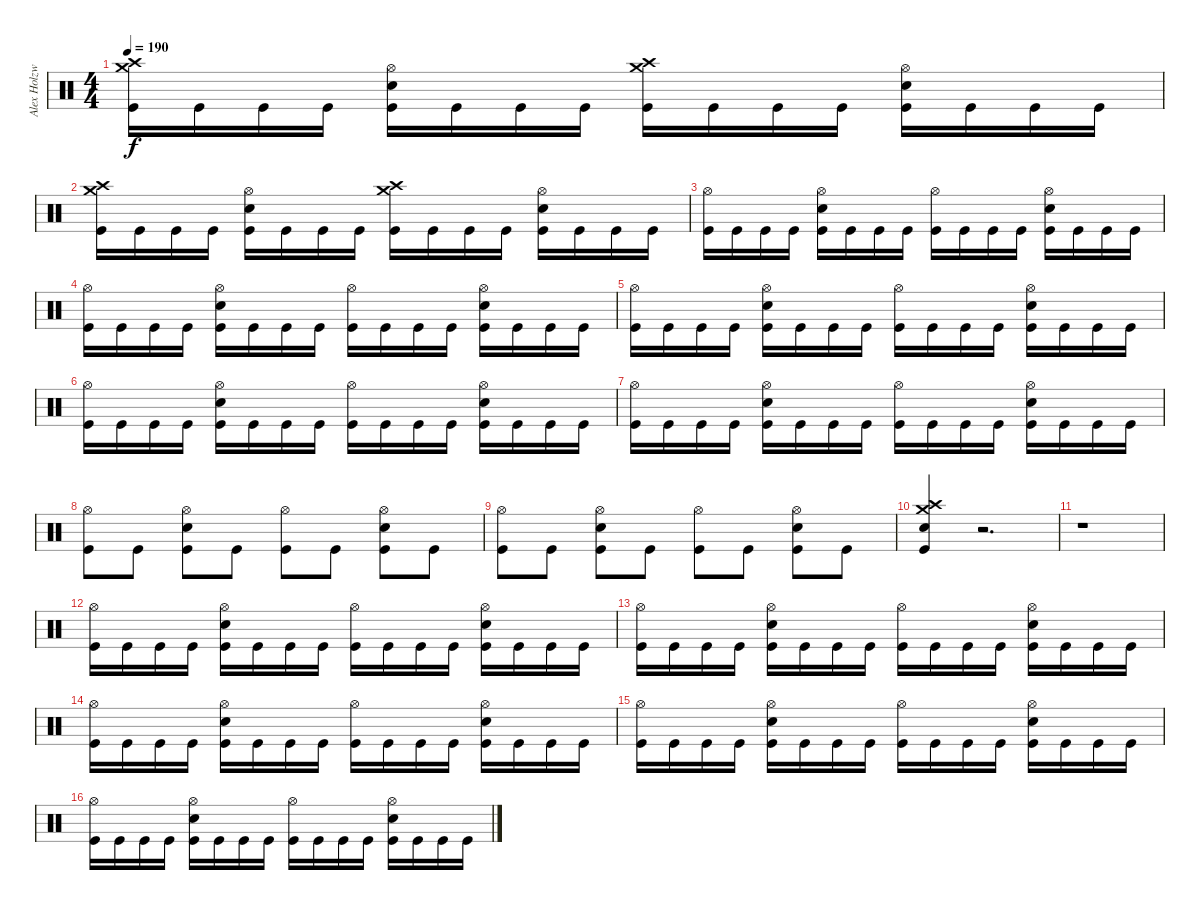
\track ("Alex Holzwarth" "Alex Holzw") {instrument percussion}
\staff {score}
\articulation defaults
\ts (4 4)
\tempo 190
\clef neutral
\ks c
("Kick (hit)" "Crash high (hit)" "Crash medium (hit)").16{dy f} "Kick (hit)".16 "Kick (hit)".16 "Kick (hit)".16 ("Kick (hit)" "Electric Snare (hit)" "Hi-Hat (open)").16 "Kick (hit)".16 "Kick (hit)".16 "Kick (hit)".16 ("Kick (hit)" "Crash medium (hit)" "Crash high (hit)").16 "Kick (hit)".16 "Kick (hit)".16 "Kick (hit)".16 ("Kick (hit)" "Electric Snare (hit)" "Hi-Hat (open)").16 "Kick (hit)".16 "Kick (hit)".16 "Kick (hit)".16 |
("Kick (hit)" "Crash high (hit)" "Crash medium (hit)").16 "Kick (hit)".16 "Kick (hit)".16 "Kick (hit)".16 ("Kick (hit)" "Electric Snare (hit)" "Hi-Hat (open)").16 "Kick (hit)".16 "Kick (hit)".16 "Kick (hit)".16 ("Kick (hit)" "Crash high (hit)" "Crash medium (hit)").16 "Kick (hit)".16 "Kick (hit)".16 "Kick (hit)".16 ("Kick (hit)" "Electric Snare (hit)" "Hi-Hat (open)").16 "Kick (hit)".16 "Kick (hit)".16 "Kick (hit)".16 |
("Kick (hit)" "Hi-Hat (open)").16 "Kick (hit)".16 "Kick (hit)".16 "Kick (hit)".16 ("Kick (hit)" "Electric Snare (hit)" "Hi-Hat (open)").16 "Kick (hit)".16 "Kick (hit)".16 "Kick (hit)".16 ("Kick (hit)" "Hi-Hat (open)").16 "Kick (hit)".16 "Kick (hit)".16 "Kick (hit)".16 ("Kick (hit)" "Electric Snare (hit)" "Hi-Hat (open)").16 "Kick (hit)".16 "Kick (hit)".16 "Kick (hit)".16 |
("Kick (hit)" "Hi-Hat (open)").16 "Kick (hit)".16 "Kick (hit)".16 "Kick (hit)".16 ("Kick (hit)" "Electric Snare (hit)" "Hi-Hat (open)").16 "Kick (hit)".16 "Kick (hit)".16 "Kick (hit)".16 ("Kick (hit)" "Hi-Hat (open)").16 "Kick (hit)".16 "Kick (hit)".16 "Kick (hit)".16 ("Kick (hit)" "Electric Snare (hit)" "Hi-Hat (open)").16 "Kick (hit)".16 "Kick (hit)".16 "Kick (hit)".16 |
("Kick (hit)" "Hi-Hat (open)").16 "Kick (hit)".16 "Kick (hit)".16 "Kick (hit)".16 ("Kick (hit)" "Electric Snare (hit)" "Hi-Hat (open)").16 "Kick (hit)".16 "Kick (hit)".16 "Kick (hit)".16 ("Kick (hit)" "Hi-Hat (open)").16 "Kick (hit)".16 "Kick (hit)".16 "Kick (hit)".16 ("Kick (hit)" "Electric Snare (hit)" "Hi-Hat (open)").16 "Kick (hit)".16 "Kick (hit)".16 "Kick (hit)".16 |
("Kick (hit)" "Hi-Hat (open)").16 "Kick (hit)".16 "Kick (hit)".16 "Kick (hit)".16 ("Kick (hit)" "Electric Snare (hit)" "Hi-Hat (open)").16 "Kick (hit)".16 "Kick (hit)".16 "Kick (hit)".16 ("Kick (hit)" "Hi-Hat (open)").16 "Kick (hit)".16 "Kick (hit)".16 "Kick (hit)".16 ("Kick (hit)" "Electric Snare (hit)" "Hi-Hat (open)").16 "Kick (hit)".16 "Kick (hit)".16 "Kick (hit)".16 |
("Kick (hit)" "Hi-Hat (open)").16 "Kick (hit)".16 "Kick (hit)".16 "Kick (hit)".16 ("Kick (hit)" "Electric Snare (hit)" "Hi-Hat (open)").16 "Kick (hit)".16 "Kick (hit)".16 "Kick (hit)".16 ("Kick (hit)" "Hi-Hat (open)").16 "Kick (hit)".16 "Kick (hit)".16 "Kick (hit)".16 ("Kick (hit)" "Electric Snare (hit)" "Hi-Hat (open)").16 "Kick (hit)".16 "Kick (hit)".16 "Kick (hit)".16 |
("Kick (hit)" "Hi-Hat (open)").8 "Kick (hit)".8 ("Kick (hit)" "Electric Snare (hit)" "Hi-Hat (open)").8 "Kick (hit)".8 ("Kick (hit)" "Hi-Hat (open)").8 "Kick (hit)".8 ("Kick (hit)" "Electric Snare (hit)" "Hi-Hat (open)").8 "Kick (hit)".8 |
("Kick (hit)" "Hi-Hat (open)").8 "Kick (hit)".8 ("Kick (hit)" "Electric Snare (hit)" "Hi-Hat (open)").8 "Kick (hit)".8 ("Kick (hit)" "Hi-Hat (open)").8 "Kick (hit)".8 ("Kick (hit)" "Electric Snare (hit)" "Hi-Hat (open)").8 "Kick (hit)".8 |
("Kick (hit)" "Electric Snare (hit)" "Crash medium (hit)" "Crash high (hit)").4 r.2{d} |
r.1 |
("Kick (hit)" "Hi-Hat (open)").16 "Kick (hit)".16 "Kick (hit)".16 "Kick (hit)".16 ("Kick (hit)" "Electric Snare (hit)" "Hi-Hat (open)").16 "Kick (hit)".16 "Kick (hit)".16 "Kick (hit)".16 ("Kick (hit)" "Hi-Hat (open)").16 "Kick (hit)".16 "Kick (hit)".16 "Kick (hit)".16 ("Kick (hit)" "Electric Snare (hit)" "Hi-Hat (open)").16 "Kick (hit)".16 "Kick (hit)".16 "Kick (hit)".16 |
("Kick (hit)" "Hi-Hat (open)").16 "Kick (hit)".16 "Kick (hit)".16 "Kick (hit)".16 ("Kick (hit)" "Electric Snare (hit)" "Hi-Hat (open)").16 "Kick (hit)".16 "Kick (hit)".16 "Kick (hit)".16 ("Kick (hit)" "Hi-Hat (open)").16 "Kick (hit)".16 "Kick (hit)".16 "Kick (hit)".16 ("Kick (hit)" "Electric Snare (hit)" "Hi-Hat (open)").16 "Kick (hit)".16 "Kick (hit)".16 "Kick (hit)".16 |
("Kick (hit)" "Hi-Hat (open)").16 "Kick (hit)".16 "Kick (hit)".16 "Kick (hit)".16 ("Kick (hit)" "Electric Snare (hit)" "Hi-Hat (open)").16 "Kick (hit)".16 "Kick (hit)".16 "Kick (hit)".16 ("Kick (hit)" "Hi-Hat (open)").16 "Kick (hit)".16 "Kick (hit)".16 "Kick (hit)".16 ("Kick (hit)" "Electric Snare (hit)" "Hi-Hat (open)").16 "Kick (hit)".16 "Kick (hit)".16 "Kick (hit)".16 |
("Kick (hit)" "Hi-Hat (open)").16 "Kick (hit)".16 "Kick (hit)".16 "Kick (hit)".16 ("Kick (hit)" "Electric Snare (hit)" "Hi-Hat (open)").16 "Kick (hit)".16 "Kick (hit)".16 "Kick (hit)".16 ("Kick (hit)" "Hi-Hat (open)").16 "Kick (hit)".16 "Kick (hit)".16 "Kick (hit)".16 ("Kick (hit)" "Electric Snare (hit)" "Hi-Hat (open)").16 "Kick (hit)".16 "Kick (hit)".16 "Kick (hit)".16 |
("Kick (hit)" "Hi-Hat (open)").16 "Kick (hit)".16 "Kick (hit)".16 "Kick (hit)".16 ("Kick (hit)" "Electric Snare (hit)" "Hi-Hat (open)").16 "Kick (hit)".16 "Kick (hit)".16 "Kick (hit)".16 ("Kick (hit)" "Hi-Hat (open)").16 "Kick (hit)".16 "Kick (hit)".16 "Kick (hit)".16 ("Kick (hit)" "Electric Snare (hit)" "Hi-Hat (open)").16 "Kick (hit)".16 "Kick (hit)".16 "Kick (hit)".16
